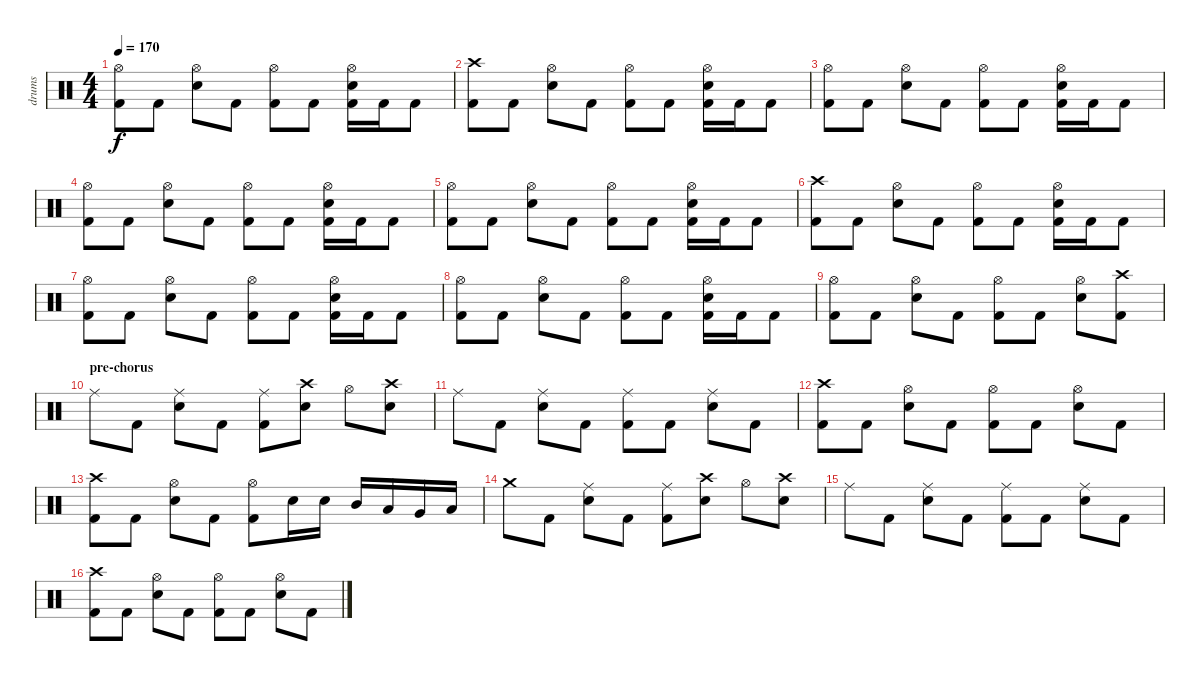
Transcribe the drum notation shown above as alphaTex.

\track ("drums" "drums") {instrument percussion}
\staff {score}
\articulation defaults
\ts (4 4)
\tempo 170
\clef neutral
\ks c
("Hi-Hat (open)" "Kick (hit) 2").8{dy f} "Kick (hit) 2".8 ("Hi-Hat (open)" "Electric Snare (hit)").8 "Kick (hit) 2".8 ("Hi-Hat (open)" "Kick (hit) 2").8 "Kick (hit) 2".8 ("Hi-Hat (open)" "Electric Snare (hit)" "Kick (hit) 2").16 "Kick (hit) 2".16 "Kick (hit) 2".8 |
("Crash high (hit)" "Kick (hit) 2").8 "Kick (hit) 2".8 ("Hi-Hat (open)" "Electric Snare (hit)").8 "Kick (hit) 2".8 ("Hi-Hat (open)" "Kick (hit) 2").8 "Kick (hit) 2".8 ("Hi-Hat (open)" "Electric Snare (hit)" "Kick (hit) 2").16 "Kick (hit) 2".16 "Kick (hit) 2".8 |
("Hi-Hat (open)" "Kick (hit) 2").8 "Kick (hit) 2".8 ("Hi-Hat (open)" "Electric Snare (hit)").8 "Kick (hit) 2".8 ("Hi-Hat (open)" "Kick (hit) 2").8 "Kick (hit) 2".8 ("Hi-Hat (open)" "Electric Snare (hit)" "Kick (hit) 2").16 "Kick (hit) 2".16 "Kick (hit) 2".8 |
("Hi-Hat (open)" "Kick (hit) 2").8 "Kick (hit) 2".8 ("Hi-Hat (open)" "Electric Snare (hit)").8 "Kick (hit) 2".8 ("Hi-Hat (open)" "Kick (hit) 2").8 "Kick (hit) 2".8 ("Hi-Hat (open)" "Electric Snare (hit)" "Kick (hit) 2").16 "Kick (hit) 2".16 "Kick (hit) 2".8 |
("Hi-Hat (open)" "Kick (hit) 2").8 "Kick (hit) 2".8 ("Hi-Hat (open)" "Electric Snare (hit)").8 "Kick (hit) 2".8 ("Hi-Hat (open)" "Kick (hit) 2").8 "Kick (hit) 2".8 ("Hi-Hat (open)" "Electric Snare (hit)" "Kick (hit) 2").16 "Kick (hit) 2".16 "Kick (hit) 2".8 |
("Crash high (hit)" "Kick (hit) 2").8 "Kick (hit) 2".8 ("Hi-Hat (open)" "Electric Snare (hit)").8 "Kick (hit) 2".8 ("Hi-Hat (open)" "Kick (hit) 2").8 "Kick (hit) 2".8 ("Hi-Hat (open)" "Electric Snare (hit)" "Kick (hit) 2").16 "Kick (hit) 2".16 "Kick (hit) 2".8 |
("Hi-Hat (open)" "Kick (hit) 2").8 "Kick (hit) 2".8 ("Hi-Hat (open)" "Electric Snare (hit)").8 "Kick (hit) 2".8 ("Hi-Hat (open)" "Kick (hit) 2").8 "Kick (hit) 2".8 ("Hi-Hat (open)" "Electric Snare (hit)" "Kick (hit) 2").16 "Kick (hit) 2".16 "Kick (hit) 2".8 |
("Hi-Hat (open)" "Kick (hit) 2").8 "Kick (hit) 2".8 ("Hi-Hat (open)" "Electric Snare (hit)").8 "Kick (hit) 2".8 ("Hi-Hat (open)" "Kick (hit) 2").8 "Kick (hit) 2".8 ("Hi-Hat (open)" "Electric Snare (hit)" "Kick (hit) 2").16 "Kick (hit) 2".16 "Kick (hit) 2".8 |
("Hi-Hat (open)" "Kick (hit) 2").8 "Kick (hit) 2".8 ("Hi-Hat (open)" "Electric Snare (hit)").8 "Kick (hit) 2".8 ("Hi-Hat (open)" "Kick (hit) 2").8 "Kick (hit) 2".8 ("Hi-Hat (open)" "Electric Snare (hit)").8 ("Crash high (hit)" "Kick (hit) 2").8 |
\section ("" "pre-chorus")
"Ride (middle)".8 "Kick (hit) 2".8 ("Ride (middle)" "Electric Snare (hit)").8 "Kick (hit) 2".8 ("Ride (middle)" "Kick (hit) 2").8 ("Crash high (hit)" "Electric Snare (hit)").8 "Hi-Hat (open)".8 ("Crash high (hit)" "Electric Snare (hit)").8 |
"Ride (middle)".8 "Kick (hit) 2".8 ("Ride (middle)" "Electric Snare (hit)").8 "Kick (hit) 2".8 ("Ride (middle)" "Kick (hit) 2").8 "Kick (hit) 2".8 ("Ride (middle)" "Electric Snare (hit)").8 "Kick (hit) 2".8 |
("Crash high (hit)" "Kick (hit) 2").8 "Kick (hit) 2".8 ("Hi-Hat (open)" "Electric Snare (hit)").8 "Kick (hit) 2".8 ("Hi-Hat (open)" "Kick (hit) 2").8 "Kick (hit) 2".8 ("Hi-Hat (open)" "Electric Snare (hit)").8 "Kick (hit) 2".8 |
("Crash high (hit)" "Kick (hit) 2").8 "Kick (hit) 2".8 ("Hi-Hat (open)" "Electric Snare (hit)").8 "Kick (hit) 2".8 ("Hi-Hat (open)" "Kick (hit) 2").8 "Electric Snare (hit)".16 "Electric Snare (hit)".16 "Mid Tom (hit)".16 "Low Tom (hit)".16 "Very Low Tom (hit)".16 "Low Floor Tom (hit)".16 |
"Crash medium (hit)".8 "Kick (hit) 2".8 ("Ride (middle)" "Electric Snare (hit)").8 "Kick (hit) 2".8 ("Ride (middle)" "Kick (hit) 2").8 ("Crash high (hit)" "Electric Snare (hit)").8 "Hi-Hat (open)".8 ("Crash high (hit)" "Electric Snare (hit)").8 |
"Ride (middle)".8 "Kick (hit) 2".8 ("Ride (middle)" "Electric Snare (hit)").8 "Kick (hit) 2".8 ("Ride (middle)" "Kick (hit) 2").8 "Kick (hit) 2".8 ("Ride (middle)" "Electric Snare (hit)").8 "Kick (hit) 2".8 |
("Crash high (hit)" "Kick (hit) 2").8 "Kick (hit) 2".8 ("Hi-Hat (open)" "Electric Snare (hit)").8 "Kick (hit) 2".8 ("Hi-Hat (open)" "Kick (hit) 2").8 "Kick (hit) 2".8 ("Hi-Hat (open)" "Electric Snare (hit)").8 "Kick (hit) 2".8
